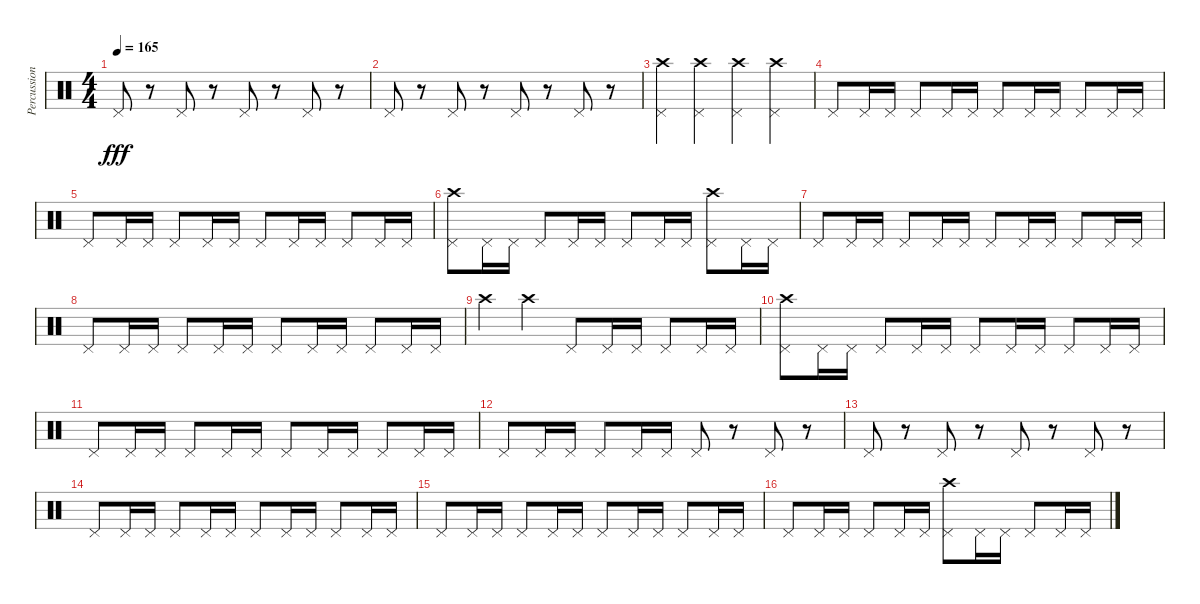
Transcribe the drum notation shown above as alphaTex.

\track ("Percussion" "Percussion") {instrument percussion}
\staff {score}
\articulation defaults
\ts (4 4)
\tempo 165
\clef neutral
\ks c "Pedal Hi-Hat (hit)".8{dy fff}
r.8 "Pedal Hi-Hat (hit)".8 r.8 "Pedal Hi-Hat (hit)".8 r.8 "Pedal Hi-Hat (hit)".8 r.8 |
"Pedal Hi-Hat (hit)".8 r.8 "Pedal Hi-Hat (hit)".8 r.8 "Pedal Hi-Hat (hit)".8 r.8 "Pedal Hi-Hat (hit)".8 r.8 |
("Pedal Hi-Hat (hit)" "Crash high (hit)").4 ("Pedal Hi-Hat (hit)" "Crash high (hit)").4 ("Pedal Hi-Hat (hit)" "Crash high (hit)").4 ("Pedal Hi-Hat (hit)" "Crash high (hit)").4 |
"Pedal Hi-Hat (hit)".8 "Pedal Hi-Hat (hit)".16 "Pedal Hi-Hat (hit)".16 "Pedal Hi-Hat (hit)".8 "Pedal Hi-Hat (hit)".16 "Pedal Hi-Hat (hit)".16 "Pedal Hi-Hat (hit)".8 "Pedal Hi-Hat (hit)".16 "Pedal Hi-Hat (hit)".16 "Pedal Hi-Hat (hit)".8 "Pedal Hi-Hat (hit)".16 "Pedal Hi-Hat (hit)".16 |
"Pedal Hi-Hat (hit)".8 "Pedal Hi-Hat (hit)".16 "Pedal Hi-Hat (hit)".16 "Pedal Hi-Hat (hit)".8 "Pedal Hi-Hat (hit)".16 "Pedal Hi-Hat (hit)".16 "Pedal Hi-Hat (hit)".8 "Pedal Hi-Hat (hit)".16 "Pedal Hi-Hat (hit)".16 "Pedal Hi-Hat (hit)".8 "Pedal Hi-Hat (hit)".16 "Pedal Hi-Hat (hit)".16 |
("Crash high (hit)" "Pedal Hi-Hat (hit)").8 "Pedal Hi-Hat (hit)".16 "Pedal Hi-Hat (hit)".16 "Pedal Hi-Hat (hit)".8 "Pedal Hi-Hat (hit)".16 "Pedal Hi-Hat (hit)".16 "Pedal Hi-Hat (hit)".8 "Pedal Hi-Hat (hit)".16 "Pedal Hi-Hat (hit)".16 ("Crash high (hit)" "Pedal Hi-Hat (hit)").8 "Pedal Hi-Hat (hit)".16 "Pedal Hi-Hat (hit)".16 |
"Pedal Hi-Hat (hit)".8 "Pedal Hi-Hat (hit)".16 "Pedal Hi-Hat (hit)".16 "Pedal Hi-Hat (hit)".8 "Pedal Hi-Hat (hit)".16 "Pedal Hi-Hat (hit)".16 "Pedal Hi-Hat (hit)".8 "Pedal Hi-Hat (hit)".16 "Pedal Hi-Hat (hit)".16 "Pedal Hi-Hat (hit)".8 "Pedal Hi-Hat (hit)".16 "Pedal Hi-Hat (hit)".16 |
"Pedal Hi-Hat (hit)".8 "Pedal Hi-Hat (hit)".16 "Pedal Hi-Hat (hit)".16 "Pedal Hi-Hat (hit)".8 "Pedal Hi-Hat (hit)".16 "Pedal Hi-Hat (hit)".16 "Pedal Hi-Hat (hit)".8 "Pedal Hi-Hat (hit)".16 "Pedal Hi-Hat (hit)".16 "Pedal Hi-Hat (hit)".8 "Pedal Hi-Hat (hit)".16 "Pedal Hi-Hat (hit)".16 |
"Crash high (hit)".4 "Crash high (hit)".4 "Pedal Hi-Hat (hit)".8 "Pedal Hi-Hat (hit)".16 "Pedal Hi-Hat (hit)".16 "Pedal Hi-Hat (hit)".8 "Pedal Hi-Hat (hit)".16 "Pedal Hi-Hat (hit)".16 |
("Crash high (hit)" "Pedal Hi-Hat (hit)").8 "Pedal Hi-Hat (hit)".16 "Pedal Hi-Hat (hit)".16 "Pedal Hi-Hat (hit)".8 "Pedal Hi-Hat (hit)".16 "Pedal Hi-Hat (hit)".16 "Pedal Hi-Hat (hit)".8 "Pedal Hi-Hat (hit)".16 "Pedal Hi-Hat (hit)".16 "Pedal Hi-Hat (hit)".8 "Pedal Hi-Hat (hit)".16 "Pedal Hi-Hat (hit)".16 |
"Pedal Hi-Hat (hit)".8 "Pedal Hi-Hat (hit)".16 "Pedal Hi-Hat (hit)".16 "Pedal Hi-Hat (hit)".8 "Pedal Hi-Hat (hit)".16 "Pedal Hi-Hat (hit)".16 "Pedal Hi-Hat (hit)".8 "Pedal Hi-Hat (hit)".16 "Pedal Hi-Hat (hit)".16 "Pedal Hi-Hat (hit)".8 "Pedal Hi-Hat (hit)".16 "Pedal Hi-Hat (hit)".16 |
"Pedal Hi-Hat (hit)".8 "Pedal Hi-Hat (hit)".16 "Pedal Hi-Hat (hit)".16 "Pedal Hi-Hat (hit)".8 "Pedal Hi-Hat (hit)".16 "Pedal Hi-Hat (hit)".16 "Pedal Hi-Hat (hit)".8 r.8 "Pedal Hi-Hat (hit)".8 r.8 |
"Pedal Hi-Hat (hit)".8 r.8 "Pedal Hi-Hat (hit)".8 r.8 "Pedal Hi-Hat (hit)".8 r.8 "Pedal Hi-Hat (hit)".8 r.8 |
"Pedal Hi-Hat (hit)".8 "Pedal Hi-Hat (hit)".16 "Pedal Hi-Hat (hit)".16 "Pedal Hi-Hat (hit)".8 "Pedal Hi-Hat (hit)".16 "Pedal Hi-Hat (hit)".16 "Pedal Hi-Hat (hit)".8 "Pedal Hi-Hat (hit)".16 "Pedal Hi-Hat (hit)".16 "Pedal Hi-Hat (hit)".8 "Pedal Hi-Hat (hit)".16 "Pedal Hi-Hat (hit)".16 |
"Pedal Hi-Hat (hit)".8 "Pedal Hi-Hat (hit)".16 "Pedal Hi-Hat (hit)".16 "Pedal Hi-Hat (hit)".8 "Pedal Hi-Hat (hit)".16 "Pedal Hi-Hat (hit)".16 "Pedal Hi-Hat (hit)".8 "Pedal Hi-Hat (hit)".16 "Pedal Hi-Hat (hit)".16 "Pedal Hi-Hat (hit)".8 "Pedal Hi-Hat (hit)".16 "Pedal Hi-Hat (hit)".16 |
"Pedal Hi-Hat (hit)".8 "Pedal Hi-Hat (hit)".16 "Pedal Hi-Hat (hit)".16 "Pedal Hi-Hat (hit)".8 "Pedal Hi-Hat (hit)".16 "Pedal Hi-Hat (hit)".16 ("Crash high (hit)" "Pedal Hi-Hat (hit)").8 "Pedal Hi-Hat (hit)".16 "Pedal Hi-Hat (hit)".16 "Pedal Hi-Hat (hit)".8 "Pedal Hi-Hat (hit)".16 "Pedal Hi-Hat (hit)".16
